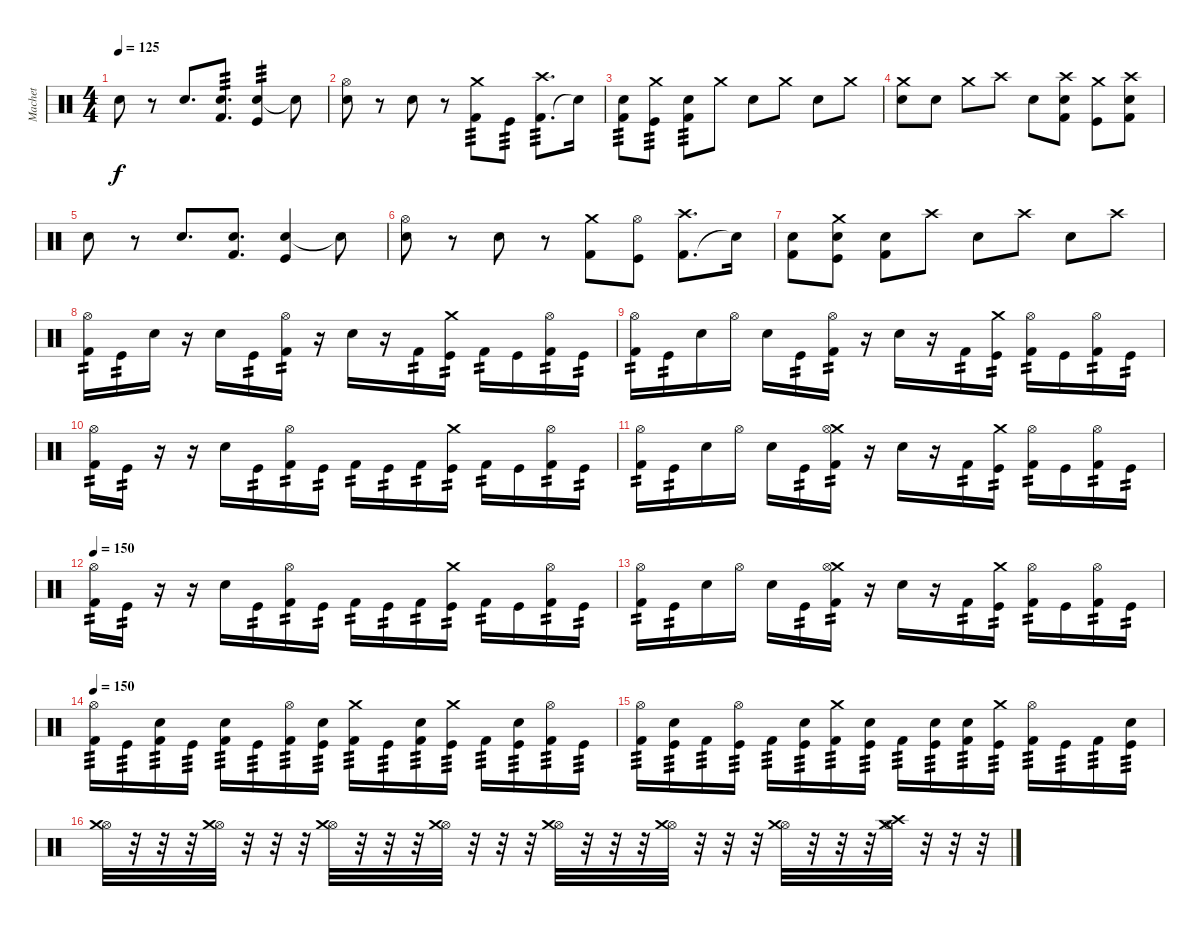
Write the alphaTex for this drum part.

\track ("Machet" "Machet") {instrument percussion}
\staff {score}
\articulation defaults
\ts (4 4)
\tempo 125
\clef neutral
\ks c "Electric Snare (hit)".8{dy f}
r.8 "Electric Snare (hit)".8{d} ("Electric Snare (hit)" "Kick (hit) 2").8{d tp 3} ("Electric Snare (hit)" "Kick (hit)").4{tp 3} "Electric Snare (hit)"{t}.8 |
("Hi-Hat (open)" "Electric Snare (hit)").8 r.8 "Electric Snare (hit)".8 r.8 ("Kick (hit) 2" "Crash medium (hit)").8{tp 3} "Kick (hit)".8{tp 3} ("Kick (hit) 2" "Crash high (hit)").8{d tp 3} "Snare (hit)"{t}.16 |
("Kick (hit) 2" "Electric Snare (hit)").8{tp 3} ("Kick (hit)" "Crash medium (hit)").8{tp 3} ("Kick (hit) 2" "Electric Snare (hit)").8{tp 3} "Crash medium (hit)".8 "Electric Snare (hit)".8 "Crash medium (hit)".8 "Electric Snare (hit)".8 "Crash medium (hit)".8 |
("Crash medium (hit)" "Electric Snare (hit)").8 "Electric Snare (hit)".8 "Crash medium (hit)".8 "Crash high (hit)".8 "Electric Snare (hit)".8 ("Crash high (hit)" "Electric Snare (hit)" "Kick (hit) 2").8 ("Crash medium (hit)" "Kick (hit)").8 ("Crash high (hit)" "Electric Snare (hit)" "Kick (hit) 2").8 |
"Electric Snare (hit)".8 r.8 "Electric Snare (hit)".8{d} ("Electric Snare (hit)" "Kick (hit) 2").8{d} ("Electric Snare (hit)" "Kick (hit)").4 "Electric Snare (hit)"{t}.8 |
("Hi-Hat (open)" "Electric Snare (hit)").8 r.8 "Electric Snare (hit)".8 r.8 ("Kick (hit) 2" "Crash medium (hit)").8 ("Kick (hit)" "Hi-Hat (open)").8 ("Kick (hit) 2" "Crash high (hit)").8{d} "Snare (hit)"{t}.16 |
("Kick (hit) 2" "Electric Snare (hit)").8 ("Kick (hit)" "Crash medium (hit)" "Electric Snare (hit)").8 ("Kick (hit) 2" "Electric Snare (hit)").8 "Crash high (hit)".8 "Electric Snare (hit)".8 "Crash high (hit)".8 "Electric Snare (hit)".8 "Crash high (hit)".8 |
("Hi-Hat (open)" "Kick (hit) 2").16{tp 2} "Kick (hit)".16{tp 2} "Electric Snare (hit)".16 r.16 "Electric Snare (hit)".16 "Kick (hit)".16{tp 2} ("Hi-Hat (open)" "Kick (hit) 2").16{tp 2} r.16 "Electric Snare (hit)".16 r.16 "Kick (hit) 2".16{tp 2} ("Crash medium (hit)" "Kick (hit)").16{tp 2} "Kick (hit) 2".16{tp 2} "Kick (hit)".16 ("Hi-Hat (open)" "Kick (hit) 2").16{tp 2} "Kick (hit)".16{tp 2} |
("Hi-Hat (open)" "Kick (hit) 2").16{tp 2} "Kick (hit)".16{tp 2} "Electric Snare (hit)".16 "Hi-Hat (open)".16 "Electric Snare (hit)".16 "Kick (hit)".16{tp 2} ("Hi-Hat (open)" "Kick (hit) 2").16{tp 2} r.16 "Electric Snare (hit)".16 r.16 "Kick (hit) 2".16{tp 2} ("Crash medium (hit)" "Kick (hit)").16{tp 2} ("Hi-Hat (open)" "Kick (hit) 2").16{tp 2} "Kick (hit)".16 ("Hi-Hat (open)" "Kick (hit) 2").16{tp 2} "Kick (hit)".16{tp 2} |
("Hi-Hat (open)" "Kick (hit) 2").16{tp 2} "Kick (hit)".16{tp 2} r.16 r.16 "Electric Snare (hit)".16 "Kick (hit)".16{tp 2} ("Hi-Hat (open)" "Kick (hit) 2").16{tp 2} "Kick (hit)".16{tp 2} "Kick (hit) 2".16{tp 2} "Kick (hit)".16{tp 2} "Kick (hit) 2".16{tp 2} ("Crash medium (hit)" "Kick (hit)").16{tp 2} "Kick (hit) 2".16{tp 2} "Kick (hit)".16 ("Hi-Hat (open)" "Kick (hit) 2").16{tp 2} "Kick (hit)".16{tp 2} |
("Hi-Hat (open)" "Kick (hit) 2").16{tp 2} "Kick (hit)".16{tp 2} "Electric Snare (hit)".16 "Hi-Hat (open)".16 "Electric Snare (hit)".16 "Kick (hit)".16{tp 2} ("Crash medium (hit)" "Hi-Hat (open)" "Kick (hit) 2").16{tp 2} r.16 "Electric Snare (hit)".16 r.16 "Kick (hit) 2".16{tp 2} ("Crash medium (hit)" "Kick (hit)").16{tp 2} ("Hi-Hat (open)" "Kick (hit) 2").16{tp 2} "Kick (hit)".16 ("Hi-Hat (open)" "Kick (hit) 2").16{tp 2} "Kick (hit)".16{tp 2} |
\tempo 130
\tempo 150
("Hi-Hat (open)" "Kick (hit) 2").16{tp 2} "Kick (hit)".16{tp 2} r.16 r.16 "Electric Snare (hit)".16 "Kick (hit)".16{tp 2} ("Hi-Hat (open)" "Kick (hit) 2").16{tp 2} "Kick (hit)".16{tp 2} "Kick (hit) 2".16{tp 2} "Kick (hit)".16{tp 2} "Kick (hit) 2".16{tp 2} ("Crash medium (hit)" "Kick (hit)").16{tp 2} "Kick (hit) 2".16{tp 2} "Kick (hit)".16 ("Hi-Hat (open)" "Kick (hit) 2").16{tp 2} "Kick (hit)".16{tp 2} |
("Hi-Hat (open)" "Kick (hit) 2").16{tp 2} "Kick (hit)".16{tp 2} "Electric Snare (hit)".16 "Hi-Hat (open)".16 "Electric Snare (hit)".16 "Kick (hit)".16{tp 2} ("Crash medium (hit)" "Hi-Hat (open)" "Kick (hit) 2").16{tp 2} r.16 "Electric Snare (hit)".16 r.16 "Kick (hit) 2".16{tp 2} ("Crash medium (hit)" "Kick (hit)").16{tp 2} ("Hi-Hat (open)" "Kick (hit) 2").16{tp 2} "Kick (hit)".16 ("Hi-Hat (open)" "Kick (hit) 2").16{tp 2} "Kick (hit)".16{tp 2} |
\tempo 130
\tempo 150
("Hi-Hat (open)" "Kick (hit) 2").16{tp 3} "Kick (hit)".16{tp 3} ("Electric Snare (hit)" "Kick (hit) 2").16{tp 3} "Kick (hit)".16{tp 3} ("Electric Snare (hit)" "Kick (hit) 2").16{tp 3} "Kick (hit)".16{tp 3} ("Hi-Hat (open)" "Kick (hit) 2").16{tp 3} ("Electric Snare (hit)" "Kick (hit)").16{tp 3} ("Crash medium (hit)" "Kick (hit) 2").16{tp 3} "Kick (hit)".16{tp 3} ("Electric Snare (hit)" "Kick (hit) 2").16{tp 3} ("Crash medium (hit)" "Kick (hit)").16{tp 3} "Kick (hit) 2".16{tp 3} ("Electric Snare (hit)" "Kick (hit)").16{tp 3} ("Hi-Hat (open)" "Kick (hit) 2").16{tp 3} "Kick (hit)".16{tp 3} |
("Hi-Hat (open)" "Kick (hit) 2").16{tp 3} ("Electric Snare (hit)" "Kick (hit)").16{tp 3} "Kick (hit) 2".16{tp 3} ("Hi-Hat (open)" "Kick (hit)").16{tp 3} "Kick (hit) 2".16{tp 3} ("Electric Snare (hit)" "Kick (hit)").16{tp 3} ("Crash medium (hit)" "Kick (hit) 2").16{tp 3} ("Electric Snare (hit)" "Kick (hit)").16{tp 3} "Kick (hit) 2".16{tp 3} ("Electric Snare (hit)" "Kick (hit)").16{tp 3} ("Electric Snare (hit)" "Kick (hit) 2").16{tp 3} ("Crash medium (hit)" "Kick (hit)").16{tp 3} ("Hi-Hat (open)" "Kick (hit) 2").16{tp 3} "Kick (hit)".16{tp 3} "Kick (hit) 2".16{tp 3} ("Electric Snare (hit)" "Kick (hit)").16{tp 3} |
("Hi-Hat (open)" "Crash medium (hit)").32 r.32 r.32 r.32 ("Hi-Hat (open)" "Crash medium (hit)").32 r.32 r.32 r.32 ("Hi-Hat (open)" "Crash medium (hit)").32 r.32 r.32 r.32 ("Hi-Hat (open)" "Crash medium (hit)").32 r.32 r.32 r.32 ("Hi-Hat (open)" "Crash medium (hit)").32 r.32 r.32 r.32 ("Hi-Hat (open)" "Crash medium (hit)").32 r.32 r.32 r.32 ("Hi-Hat (open)" "Crash medium (hit)").32 r.32 r.32 r.32 ("Crash high (hit)" "Hi-Hat (open)" "Crash medium (hit)").32 r.32 r.32 r.32
